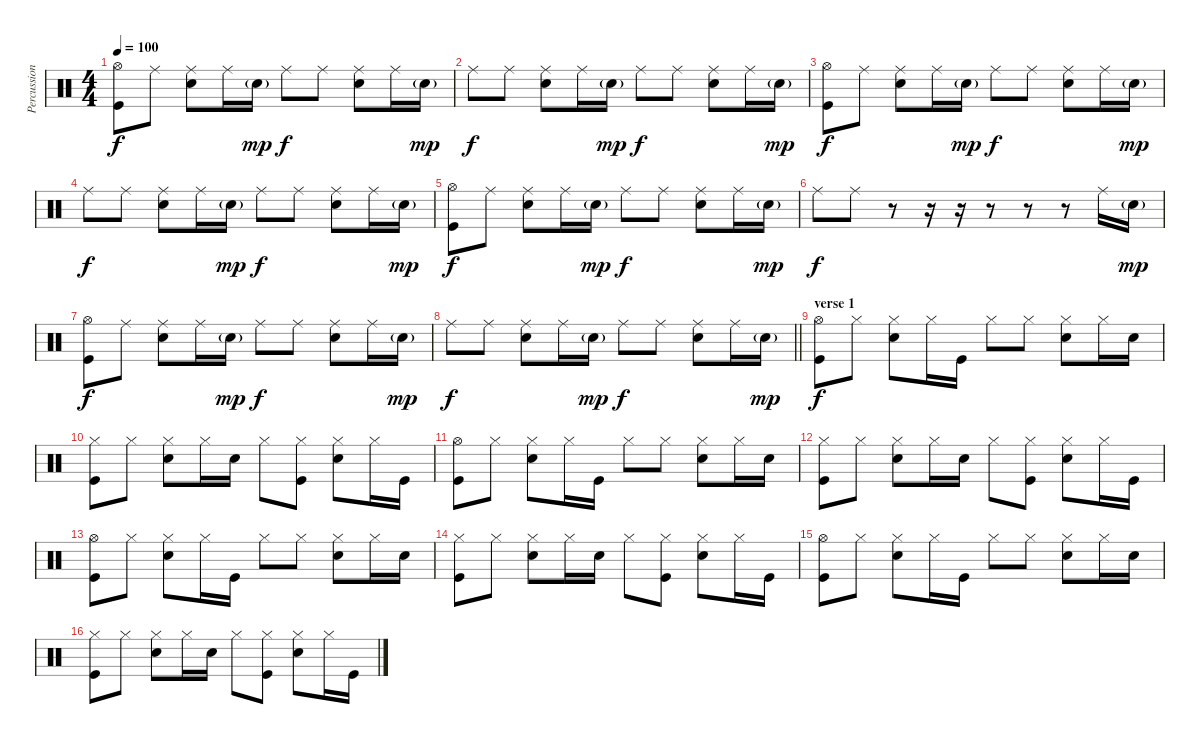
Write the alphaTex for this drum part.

\track ("Percussion" "Percussion") {instrument percussion}
\staff {score}
\articulation defaults
\ts (4 4)
\tempo 100
\clef neutral
\ks c
("Hi-Hat (open)" "Kick (hit)").8{dy f} "Ride (middle)".8 ("Ride (middle)" "Electric Snare (hit)").8 "Ride (middle)".16 "Electric Snare (hit)"{g}.16{dy mp} "Ride (middle)".8{dy f} "Ride (middle)".8 ("Ride (middle)" "Electric Snare (hit)").8 "Ride (middle)".16 "Electric Snare (hit)"{g}.16{dy mp} |
"Ride (middle)".8{dy f} "Ride (middle)".8 ("Ride (middle)" "Electric Snare (hit)").8 "Ride (middle)".16 "Electric Snare (hit)"{g}.16{dy mp} "Ride (middle)".8{dy f} "Ride (middle)".8 ("Ride (middle)" "Electric Snare (hit)").8 "Ride (middle)".16 "Electric Snare (hit)"{g}.16{dy mp} |
("Hi-Hat (open)" "Kick (hit)").8{dy f} "Ride (middle)".8 ("Ride (middle)" "Electric Snare (hit)").8 "Ride (middle)".16 "Electric Snare (hit)"{g}.16{dy mp} "Ride (middle)".8{dy f} "Ride (middle)".8 ("Ride (middle)" "Electric Snare (hit)").8 "Ride (middle)".16 "Electric Snare (hit)"{g}.16{dy mp} |
"Ride (middle)".8{dy f} "Ride (middle)".8 ("Ride (middle)" "Electric Snare (hit)").8 "Ride (middle)".16 "Electric Snare (hit)"{g}.16{dy mp} "Ride (middle)".8{dy f} "Ride (middle)".8 ("Ride (middle)" "Electric Snare (hit)").8 "Ride (middle)".16 "Electric Snare (hit)"{g}.16{dy mp} |
("Hi-Hat (open)" "Kick (hit)").8{dy f} "Ride (middle)".8 ("Ride (middle)" "Electric Snare (hit)").8 "Ride (middle)".16 "Electric Snare (hit)"{g}.16{dy mp} "Ride (middle)".8{dy f} "Ride (middle)".8 ("Ride (middle)" "Electric Snare (hit)").8 "Ride (middle)".16 "Electric Snare (hit)"{g}.16{dy mp} |
"Ride (middle)".8{dy f} "Ride (middle)".8 r.8 r.16 r.16 r.8 r.8 r.8 "Ride (middle)".16 "Electric Snare (hit)"{g}.16{dy mp} |
("Hi-Hat (open)" "Kick (hit)").8{dy f} "Ride (middle)".8 ("Ride (middle)" "Electric Snare (hit)").8 "Ride (middle)".16 "Electric Snare (hit)"{g}.16{dy mp} "Ride (middle)".8{dy f} "Ride (middle)".8 ("Ride (middle)" "Electric Snare (hit)").8 "Ride (middle)".16 "Electric Snare (hit)"{g}.16{dy mp} |
\barLineRight lightlight "Ride (middle)".8{dy f} "Ride (middle)".8
("Ride (middle)" "Electric Snare (hit)").8 "Ride (middle)".16 "Electric Snare (hit)"{g}.16{dy mp} "Ride (middle)".8{dy f} "Ride (middle)".8 ("Ride (middle)" "Electric Snare (hit)").8 "Ride (middle)".16 "Electric Snare (hit)"{g}.16{dy mp} |
\section ("" "verse 1")
("Hi-Hat (open)" "Kick (hit)").8{dy f} "Hi-Hat (closed)".8 ("Hi-Hat (closed)" "Snare (hit) 2").8 "Hi-Hat (closed)".16 "Kick (hit)".16 "Hi-Hat (closed)".8 "Hi-Hat (closed)".8 ("Hi-Hat (closed)" "Snare (hit) 2").8 "Hi-Hat (closed)".16 "Snare (hit) 2".16 |
("Hi-Hat (closed)" "Kick (hit)").8 "Hi-Hat (closed)".8 ("Hi-Hat (closed)" "Snare (hit) 2").8 "Hi-Hat (closed)".16 "Snare (hit) 2".16 "Hi-Hat (closed)".8 ("Hi-Hat (closed)" "Kick (hit)").8 ("Hi-Hat (closed)" "Snare (hit) 2").8 "Hi-Hat (closed)".16 "Kick (hit)".16 |
("Hi-Hat (open)" "Kick (hit)").8 "Hi-Hat (closed)".8 ("Hi-Hat (closed)" "Snare (hit) 2").8 "Hi-Hat (closed)".16 "Kick (hit)".16 "Hi-Hat (closed)".8 "Hi-Hat (closed)".8 ("Hi-Hat (closed)" "Snare (hit) 2").8 "Hi-Hat (closed)".16 "Snare (hit) 2".16 |
("Hi-Hat (closed)" "Kick (hit)").8 "Hi-Hat (closed)".8 ("Hi-Hat (closed)" "Snare (hit) 2").8 "Hi-Hat (closed)".16 "Snare (hit) 2".16 "Hi-Hat (closed)".8 ("Hi-Hat (closed)" "Kick (hit)").8 ("Hi-Hat (closed)" "Snare (hit) 2").8 "Hi-Hat (closed)".16 "Kick (hit)".16 |
("Hi-Hat (open)" "Kick (hit)").8 "Hi-Hat (closed)".8 ("Hi-Hat (closed)" "Snare (hit) 2").8 "Hi-Hat (closed)".16 "Kick (hit)".16 "Hi-Hat (closed)".8 "Hi-Hat (closed)".8 ("Hi-Hat (closed)" "Snare (hit) 2").8 "Hi-Hat (closed)".16 "Snare (hit) 2".16 |
("Hi-Hat (closed)" "Kick (hit)").8 "Hi-Hat (closed)".8 ("Hi-Hat (closed)" "Snare (hit) 2").8 "Hi-Hat (closed)".16 "Snare (hit) 2".16 "Hi-Hat (closed)".8 ("Hi-Hat (closed)" "Kick (hit)").8 ("Hi-Hat (closed)" "Snare (hit) 2").8 "Hi-Hat (closed)".16 "Kick (hit)".16 |
("Hi-Hat (open)" "Kick (hit)").8 "Hi-Hat (closed)".8 ("Hi-Hat (closed)" "Snare (hit) 2").8 "Hi-Hat (closed)".16 "Kick (hit)".16 "Hi-Hat (closed)".8 "Hi-Hat (closed)".8 ("Hi-Hat (closed)" "Snare (hit) 2").8 "Hi-Hat (closed)".16 "Snare (hit) 2".16 |
("Hi-Hat (closed)" "Kick (hit)").8 "Hi-Hat (closed)".8 ("Hi-Hat (closed)" "Snare (hit) 2").8 "Hi-Hat (closed)".16 "Snare (hit) 2".16 "Hi-Hat (closed)".8 ("Hi-Hat (closed)" "Kick (hit)").8 ("Hi-Hat (closed)" "Snare (hit) 2").8 "Hi-Hat (closed)".16 "Kick (hit)".16
